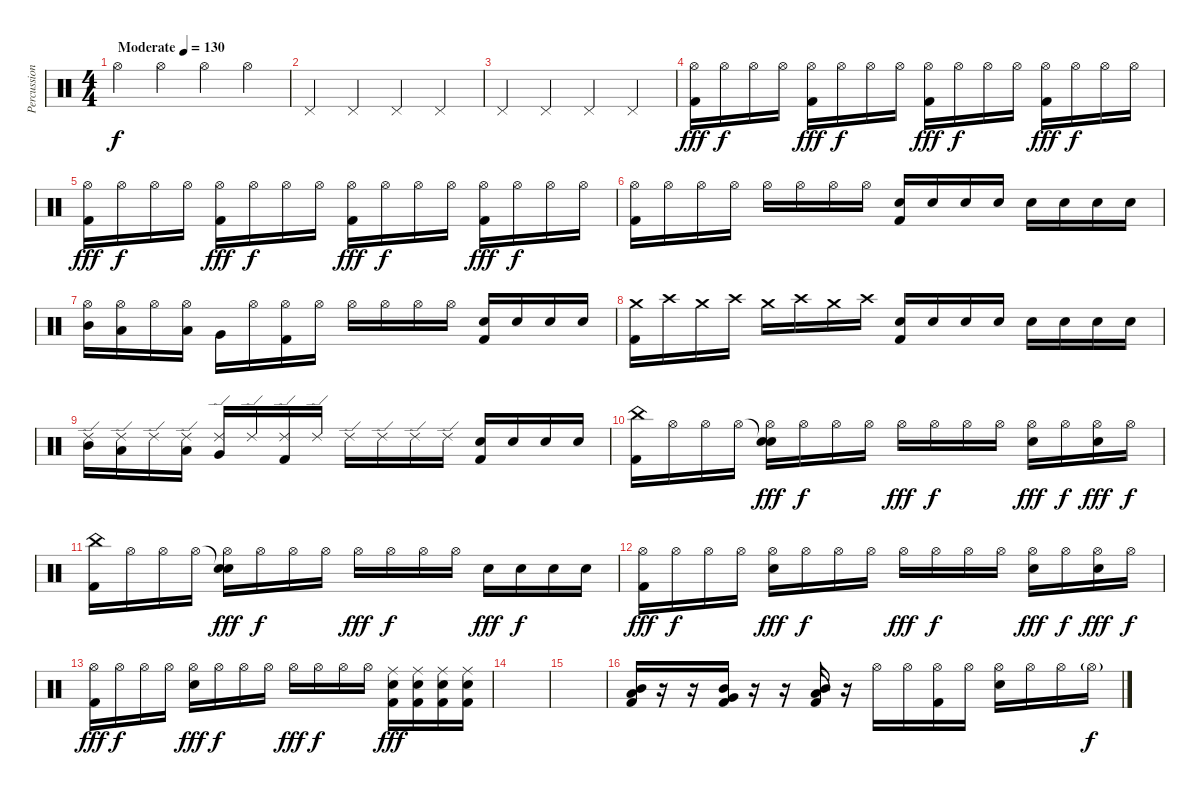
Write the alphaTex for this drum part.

\track ("Percussion" "Percussion") {instrument percussion}
\staff {score}
\articulation defaults
\ts (4 4)
\tempo (130 "Moderate")
\clef neutral
\ks c "Hi-Hat (open)".4{dy f} "Hi-Hat (open)".4 "Hi-Hat (open)".4 "Hi-Hat (open)".4
|
"Pedal Hi-Hat (hit)".4 "Pedal Hi-Hat (hit)".4 "Pedal Hi-Hat (hit)".4 "Pedal Hi-Hat (hit)".4 |
"Pedal Hi-Hat (hit)".4 "Pedal Hi-Hat (hit)".4 "Pedal Hi-Hat (hit)".4 "Pedal Hi-Hat (hit)".4 |
("Hi-Hat (open)" "Kick (hit) 2").16{dy fff} "Hi-Hat (open)".16{dy f} "Hi-Hat (open)".16 "Hi-Hat (open)".16 ("Hi-Hat (open)" "Kick (hit) 2").16{dy fff} "Hi-Hat (open)".16{dy f} "Hi-Hat (open)".16 "Hi-Hat (open)".16 ("Hi-Hat (open)" "Kick (hit) 2").16{dy fff} "Hi-Hat (open)".16{dy f} "Hi-Hat (open)".16 "Hi-Hat (open)".16 ("Hi-Hat (open)" "Kick (hit) 2").16{dy fff} "Hi-Hat (open)".16{dy f} "Hi-Hat (open)".16 "Hi-Hat (open)".16 |
("Hi-Hat (open)" "Kick (hit) 2").16{dy fff} "Hi-Hat (open)".16{dy f} "Hi-Hat (open)".16 "Hi-Hat (open)".16 ("Hi-Hat (open)" "Kick (hit) 2").16{dy fff} "Hi-Hat (open)".16{dy f} "Hi-Hat (open)".16 "Hi-Hat (open)".16 ("Hi-Hat (open)" "Kick (hit) 2").16{dy fff} "Hi-Hat (open)".16{dy f} "Hi-Hat (open)".16 "Hi-Hat (open)".16 ("Hi-Hat (open)" "Kick (hit) 2").16{dy fff} "Hi-Hat (open)".16{dy f} "Hi-Hat (open)".16 "Hi-Hat (open)".16 |
("Hi-Hat (open)" "Kick (hit) 2").16 "Hi-Hat (open)".16 "Hi-Hat (open)".16 "Hi-Hat (open)".16 "Hi-Hat (open)".16 "Hi-Hat (open)".16 "Hi-Hat (open)".16 "Hi-Hat (open)".16 ("Electric Snare (hit)" "Kick (hit) 2").16 "Electric Snare (hit)".16 "Electric Snare (hit)".16 "Electric Snare (hit)".16 "Electric Snare (hit)".16 "Electric Snare (hit)".16 "Electric Snare (hit)".16 "Electric Snare (hit)".16 |
("Hi-Hat (open)" "Mid Tom (hit)").16 ("Hi-Hat (open)" "Low Tom (hit)").16 "Hi-Hat (open)".16 ("Hi-Hat (open)" "Low Tom (hit)").16 "Very Low Tom (hit)".16 "Hi-Hat (open)".16 ("Hi-Hat (open)" "Kick (hit) 2").16 "Hi-Hat (open)".16 "Hi-Hat (open)".16 "Hi-Hat (open)".16 "Hi-Hat (open)".16 "Hi-Hat (open)".16 ("Electric Snare (hit)" "Kick (hit) 2").16 "Electric Snare (hit)".16 "Electric Snare (hit)".16 "Electric Snare (hit)".16 |
("Crash medium (hit)" "Kick (hit) 2").16 "Crash high (hit)".16 "Crash medium (hit)".16 "Crash high (hit)".16 "Crash medium (hit)".16 "Crash high (hit)".16 "Crash medium (hit)".16 "Crash high (hit)".16 ("Electric Snare (hit)" "Kick (hit) 2").16 "Electric Snare (hit)".16 "Electric Snare (hit)".16 "Electric Snare (hit)".16 "Electric Snare (hit)".16 "Electric Snare (hit)".16 "Electric Snare (hit)".16 "Electric Snare (hit)".16 |
("Ride (edge) 2" "Mid Tom (hit)").16 ("Ride (edge) 2" "Low Tom (hit)").16 "Ride (edge) 2".16 ("Ride (edge) 2" "Low Tom (hit)").16 ("Ride (edge) 2" "Very Low Tom (hit)").16 "Ride (edge) 2".16 ("Ride (edge) 2" "Kick (hit) 2").16 "Ride (edge) 2".16 "Ride (edge) 2".16 "Ride (edge) 2".16 "Ride (edge) 2".16 "Ride (edge) 2".16 ("Electric Snare (hit)" "Kick (hit) 2").16 "Electric Snare (hit)".16 "Electric Snare (hit)".16 "Electric Snare (hit)".16 |
("China (hit)" "Kick (hit) 2").16 "Hi-Hat (open)".16 "Hi-Hat (open)".16 "Hi-Hat (open)".16 ("Snare (hit)"{t} "Hi-Hat (open)" "Electric Snare (hit)").16{dy fff} "Hi-Hat (open)".16{dy f} "Hi-Hat (open)".16 "Hi-Hat (open)".16 "Hi-Hat (open)".16{dy fff} "Hi-Hat (open)".16{dy f} "Hi-Hat (open)".16 "Hi-Hat (open)".16 ("Hi-Hat (open)" "Electric Snare (hit)").16{dy fff} "Hi-Hat (open)".16{dy f} ("Hi-Hat (open)" "Electric Snare (hit)").16{dy fff} "Hi-Hat (open)".16{dy f} |
("China (hit)" "Kick (hit) 2").16 "Hi-Hat (open)".16 "Hi-Hat (open)".16 "Hi-Hat (open)".16 ("Snare (hit)"{t} "Hi-Hat (open)" "Electric Snare (hit)").16{dy fff} "Hi-Hat (open)".16{dy f} "Hi-Hat (open)".16 "Hi-Hat (open)".16 "Hi-Hat (open)".16{dy fff} "Hi-Hat (open)".16{dy f} "Hi-Hat (open)".16 "Hi-Hat (open)".16 "Electric Snare (hit)".16{dy fff} "Electric Snare (hit)".16{dy f} "Electric Snare (hit)".16 "Electric Snare (hit)".16 |
("Hi-Hat (open)" "Kick (hit) 2").16{dy fff} "Hi-Hat (open)".16{dy f} "Hi-Hat (open)".16 "Hi-Hat (open)".16 ("Hi-Hat (open)" "Electric Snare (hit)").16{dy fff} "Hi-Hat (open)".16{dy f} "Hi-Hat (open)".16 "Hi-Hat (open)".16 "Hi-Hat (open)".16{dy fff} "Hi-Hat (open)".16{dy f} "Hi-Hat (open)".16 "Hi-Hat (open)".16 ("Hi-Hat (open)" "Electric Snare (hit)").16{dy fff} "Hi-Hat (open)".16{dy f} ("Hi-Hat (open)" "Electric Snare (hit)").16{dy fff} "Hi-Hat (open)".16{dy f} |
("Hi-Hat (open)" "Kick (hit) 2").16{dy fff} "Hi-Hat (open)".16{dy f} "Hi-Hat (open)".16 "Hi-Hat (open)".16 ("Hi-Hat (open)" "Electric Snare (hit)").16{dy fff} "Hi-Hat (open)".16{dy f} "Hi-Hat (open)".16 "Hi-Hat (open)".16 "Hi-Hat (open)".16{dy fff} "Hi-Hat (open)".16{dy f} "Hi-Hat (open)".16 "Hi-Hat (open)".16 ("Ride (middle)" "Electric Snare (hit)" "Kick (hit) 2").16{dy fff} ("Ride (middle)" "Electric Snare (hit)" "Kick (hit) 2").16 ("Ride (middle)" "Electric Snare (hit)" "Kick (hit) 2").16 ("Ride (middle)" "Electric Snare (hit)" "Kick (hit) 2").16 |
|
|
("Low Tom (hit)" "Mid Tom (hit)" "Kick (hit) 2").16 r.16 r.16 ("Very Low Tom (hit)" "Mid Tom (hit)" "Kick (hit) 2").16 r.16 r.16 ("Low Tom (hit)" "Mid Tom (hit)" "Kick (hit) 2").16 r.16 "Hi-Hat (open)".16 "Hi-Hat (open)".16 ("Hi-Hat (open)" "Kick (hit) 2").16 "Hi-Hat (open)".16 ("Hi-Hat (open)" "Electric Snare (hit)").16 "Hi-Hat (open)".16 "Hi-Hat (open)".16 "Hi-Hat (open)"{g}.16{dy f}
